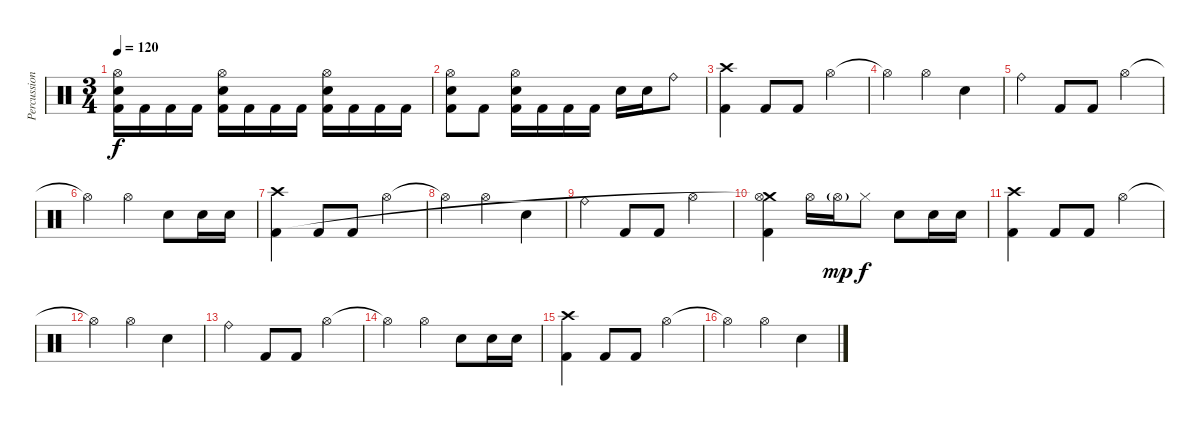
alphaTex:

\track ("Percussion" "Percussion") {instrument percussion}
\staff {score}
\articulation defaults
\ts (3 4)
\tempo 120
\clef neutral
\ks c
("Hi-Hat (open)" "Electric Snare (hit)" "Kick (hit) 2").16{dy f} "Kick (hit) 2".16 "Kick (hit) 2".16 "Kick (hit) 2".16 ("Hi-Hat (open)" "Electric Snare (hit)" "Kick (hit) 2").16 "Kick (hit) 2".16 "Kick (hit) 2".16 "Kick (hit) 2".16 ("Hi-Hat (open)" "Electric Snare (hit)" "Kick (hit) 2").16 "Kick (hit) 2".16 "Kick (hit) 2".16 "Kick (hit) 2".16 |
("Hi-Hat (open)" "Electric Snare (hit)" "Kick (hit) 2").8 "Kick (hit) 2".8 ("Hi-Hat (open)" "Electric Snare (hit)" "Kick (hit) 2").16 "Kick (hit) 2".16 "Kick (hit) 2".16 "Kick (hit) 2".16 "Electric Snare (hit)".16 "Electric Snare (hit)".16 "Ride (bell)".8 |
("Crash high (hit)" "Kick (hit) 2").4 "Kick (hit) 2".8 "Kick (hit) 2".8 "Hi-Hat (open)".4 |
"Hi-Hat (open)"{t}.4 "Hi-Hat (open)".4 "Electric Snare (hit)".4 |
"Ride (bell)".4 "Kick (hit) 2".8 "Kick (hit) 2".8 "Hi-Hat (open)".4 |
"Hi-Hat (open)"{t}.4 "Hi-Hat (open)".4 "Electric Snare (hit)".8 "Electric Snare (hit)".16 "Electric Snare (hit)".16 |
("Crash high (hit)" "Kick (hit) 2").4 "Kick (hit) 2".8 "Kick (hit) 2".8 "Hi-Hat (open)".4 |
"Hi-Hat (open)"{t}.4 "Hi-Hat (open)".4 "Electric Snare (hit)".4 |
"Ride (bell)".4 "Kick (hit) 2".8 "Kick (hit) 2".8 "Hi-Hat (open)".4 |
("Crash medium (hit)" "Hi-Hat (open)"{t} "Kick (hit) 2").4 "Hi-Hat (open)".16 "Hi-Hat (open)"{g}.16{dy mp} "Hi-Hat (closed)".8{dy f} "Electric Snare (hit)".8 "Electric Snare (hit)".16 "Electric Snare (hit)".16 |
("Crash high (hit)" "Kick (hit) 2").4 "Kick (hit) 2".8 "Kick (hit) 2".8 "Hi-Hat (open)".4 |
"Hi-Hat (open)"{t}.4 "Hi-Hat (open)".4 "Electric Snare (hit)".4 |
"Ride (bell)".4 "Kick (hit) 2".8 "Kick (hit) 2".8 "Hi-Hat (open)".4 |
"Hi-Hat (open)"{t}.4 "Hi-Hat (open)".4 "Electric Snare (hit)".8 "Electric Snare (hit)".16 "Electric Snare (hit)".16 |
("Crash high (hit)" "Kick (hit) 2").4 "Kick (hit) 2".8 "Kick (hit) 2".8 "Hi-Hat (open)".4 |
"Hi-Hat (open)"{t}.4 "Hi-Hat (open)".4 "Electric Snare (hit)".4
